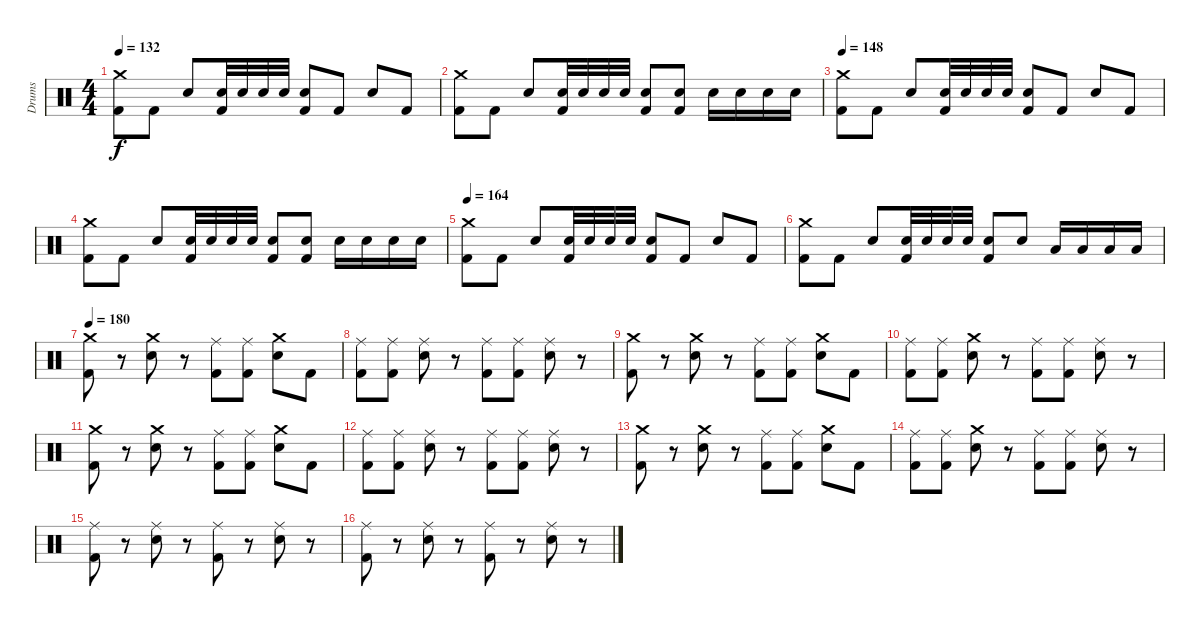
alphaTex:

\track ("Drums" "Drums") {instrument percussion}
\staff {score}
\articulation defaults
\ts (4 4)
\tempo 132
\clef neutral
\ks c
("Kick (hit) 2" "Crash medium (hit)").8{dy f} "Kick (hit) 2".8 "Electric Snare (hit)".8 ("Kick (hit) 2" "Electric Snare (hit)").32 "Electric Snare (hit)".32 "Electric Snare (hit)".32 "Electric Snare (hit)".32 ("Kick (hit) 2" "Electric Snare (hit)").8 "Kick (hit) 2".8 "Electric Snare (hit)".8 "Kick (hit) 2".8 |
("Kick (hit) 2" "Crash medium (hit)").8 "Kick (hit) 2".8 "Electric Snare (hit)".8 ("Kick (hit) 2" "Electric Snare (hit)").32 "Electric Snare (hit)".32 "Electric Snare (hit)".32 "Electric Snare (hit)".32 ("Kick (hit) 2" "Electric Snare (hit)").8 ("Kick (hit) 2" "Electric Snare (hit)").8 "Electric Snare (hit)".16 "Electric Snare (hit)".16 "Electric Snare (hit)".16 "Electric Snare (hit)".16 |
\tempo 148
("Kick (hit) 2" "Crash medium (hit)").8 "Kick (hit) 2".8 "Electric Snare (hit)".8 ("Kick (hit) 2" "Electric Snare (hit)").32 "Electric Snare (hit)".32 "Electric Snare (hit)".32 "Electric Snare (hit)".32 ("Kick (hit) 2" "Electric Snare (hit)").8 "Kick (hit) 2".8 "Electric Snare (hit)".8 "Kick (hit) 2".8 |
("Kick (hit) 2" "Crash medium (hit)").8 "Kick (hit) 2".8 "Electric Snare (hit)".8 ("Kick (hit) 2" "Electric Snare (hit)").32 "Electric Snare (hit)".32 "Electric Snare (hit)".32 "Electric Snare (hit)".32 ("Kick (hit) 2" "Electric Snare (hit)").8 ("Kick (hit) 2" "Electric Snare (hit)").8 "Electric Snare (hit)".16 "Electric Snare (hit)".16 "Electric Snare (hit)".16 "Electric Snare (hit)".16 |
\tempo 164
("Kick (hit) 2" "Crash medium (hit)").8 "Kick (hit) 2".8 "Electric Snare (hit)".8 ("Kick (hit) 2" "Electric Snare (hit)").32 "Electric Snare (hit)".32 "Electric Snare (hit)".32 "Electric Snare (hit)".32 ("Kick (hit) 2" "Electric Snare (hit)").8 "Kick (hit) 2".8 "Electric Snare (hit)".8 "Kick (hit) 2".8 |
("Kick (hit) 2" "Crash medium (hit)").8 "Kick (hit) 2".8 "Electric Snare (hit)".8 ("Kick (hit) 2" "Electric Snare (hit)").32 "Electric Snare (hit)".32 "Electric Snare (hit)".32 "Electric Snare (hit)".32 ("Kick (hit) 2" "Electric Snare (hit)").8 "Electric Snare (hit)".8 "Low Tom (hit)".16 "Low Tom (hit)".16 "Low Tom (hit)".16 "Low Tom (hit)".16 |
\tempo 180
("Kick (hit) 2" "Crash medium (hit)").8 r.8 ("Electric Snare (hit)" "Crash medium (hit)").8 r.8 ("Ride (middle)" "Kick (hit) 2").8 ("Ride (middle)" "Kick (hit) 2").8 ("Electric Snare (hit)" "Crash medium (hit)").8 "Kick (hit) 2".8 |
("Ride (middle)" "Kick (hit) 2").8 ("Ride (middle)" "Kick (hit) 2").8 ("Ride (middle)" "Electric Snare (hit)").8 r.8 ("Ride (middle)" "Kick (hit) 2").8 ("Ride (middle)" "Kick (hit) 2").8 ("Ride (middle)" "Electric Snare (hit)").8 r.8 |
("Kick (hit) 2" "Crash medium (hit)").8 r.8 ("Electric Snare (hit)" "Crash medium (hit)").8 r.8 ("Ride (middle)" "Kick (hit) 2").8 ("Ride (middle)" "Kick (hit) 2").8 ("Electric Snare (hit)" "Crash medium (hit)").8 "Kick (hit) 2".8 |
("Ride (middle)" "Kick (hit) 2").8 ("Ride (middle)" "Kick (hit) 2").8 ("Electric Snare (hit)" "Crash medium (hit)").8 r.8 ("Ride (middle)" "Kick (hit) 2").8 ("Ride (middle)" "Kick (hit) 2").8 ("Ride (middle)" "Electric Snare (hit)").8 r.8 |
("Kick (hit) 2" "Crash medium (hit)").8 r.8 ("Electric Snare (hit)" "Crash medium (hit)").8 r.8 ("Ride (middle)" "Kick (hit) 2").8 ("Ride (middle)" "Kick (hit) 2").8 ("Electric Snare (hit)" "Crash medium (hit)").8 "Kick (hit) 2".8 |
("Ride (middle)" "Kick (hit) 2").8 ("Ride (middle)" "Kick (hit) 2").8 ("Ride (middle)" "Electric Snare (hit)").8 r.8 ("Ride (middle)" "Kick (hit) 2").8 ("Ride (middle)" "Kick (hit) 2").8 ("Ride (middle)" "Electric Snare (hit)").8 r.8 |
("Kick (hit) 2" "Crash medium (hit)").8 r.8 ("Electric Snare (hit)" "Crash medium (hit)").8 r.8 ("Ride (middle)" "Kick (hit) 2").8 ("Ride (middle)" "Kick (hit) 2").8 ("Electric Snare (hit)" "Crash medium (hit)").8 "Kick (hit) 2".8 |
("Ride (middle)" "Kick (hit) 2").8 ("Ride (middle)" "Kick (hit) 2").8 ("Electric Snare (hit)" "Crash medium (hit)").8 r.8 ("Ride (middle)" "Kick (hit) 2").8 ("Ride (middle)" "Kick (hit) 2").8 ("Ride (middle)" "Electric Snare (hit)").8 r.8 |
("Ride (middle)" "Kick (hit) 2").8 r.8 ("Ride (middle)" "Electric Snare (hit)").8 r.8 ("Ride (middle)" "Kick (hit) 2").8 r.8 ("Ride (middle)" "Electric Snare (hit)").8 r.8 |
("Ride (middle)" "Kick (hit) 2").8 r.8 ("Ride (middle)" "Electric Snare (hit)").8 r.8 ("Ride (middle)" "Kick (hit) 2").8 r.8 ("Ride (middle)" "Electric Snare (hit)").8 r.8
